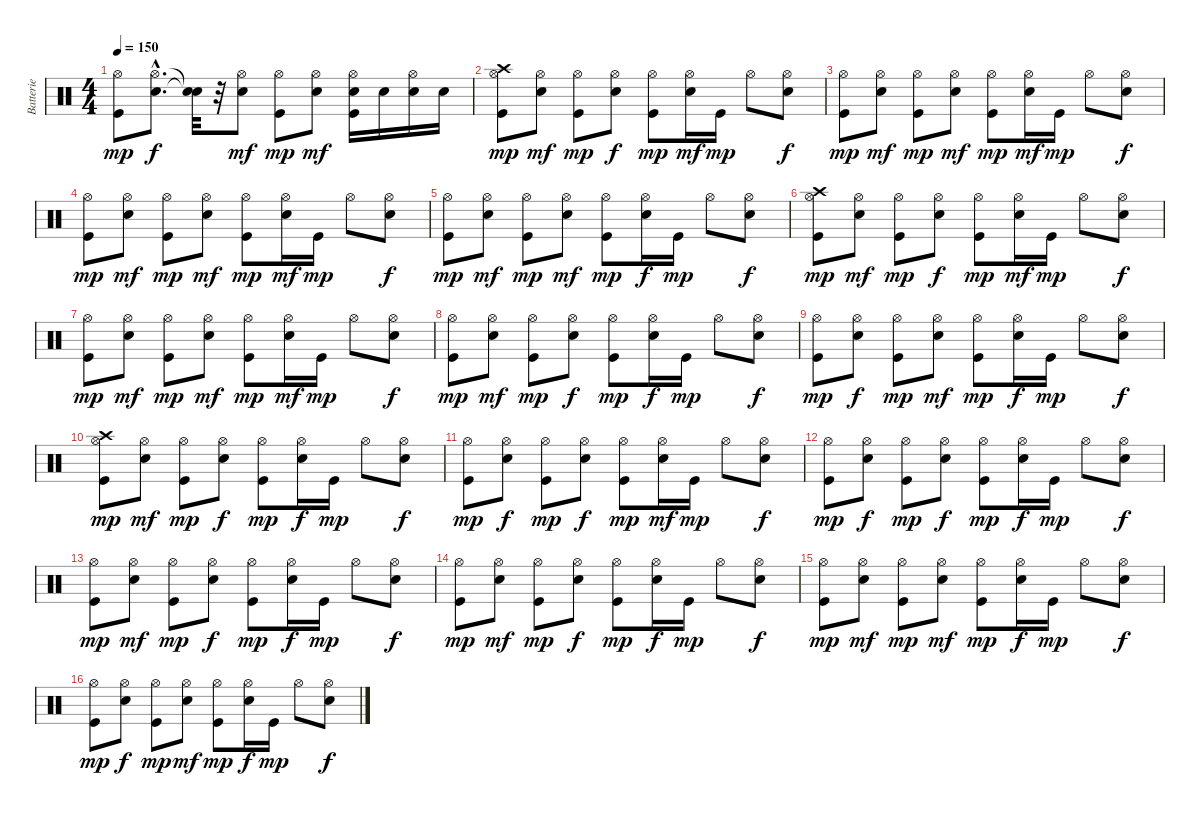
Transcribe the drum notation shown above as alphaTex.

\track ("Batterie" "Batterie") {instrument percussion}
\staff {score}
\articulation defaults
\ts (4 4)
\tempo 150
\clef neutral
\ks c
("Hi-Hat (open)" "Kick (hit)").8{dy mp} ("Hi-Hat (open)"{hac} "Snare (hit) 2"{hac}).8{d dy f} ("Snare (hit)"{t} "Snare (hit)"{t}).32 r.32 ("Hi-Hat (open)" "Snare (hit) 2").8{dy mf} ("Hi-Hat (open)" "Kick (hit)").8{dy mp} ("Hi-Hat (open)" "Snare (hit) 2").8{dy mf} ("Hi-Hat (open)" "Kick (hit)" "Snare (hit) 2").16 "Snare (hit) 2".16 ("Hi-Hat (open)" "Snare (hit) 2").16 "Snare (hit) 2".16 |
("Hi-Hat (open)" "Crash high (hit)" "Kick (hit)").8{dy mp} ("Hi-Hat (open)" "Snare (hit) 2").8{dy mf} ("Hi-Hat (open)" "Kick (hit)").8{dy mp} ("Hi-Hat (open)" "Snare (hit) 2").8{dy f} ("Hi-Hat (open)" "Kick (hit)").8{dy mp} ("Hi-Hat (open)" "Snare (hit) 2").16{dy mf} "Kick (hit)".16{dy mp} "Hi-Hat (open)".8 ("Hi-Hat (open)" "Snare (hit) 2").8{dy f} |
("Hi-Hat (open)" "Kick (hit)").8{dy mp} ("Hi-Hat (open)" "Snare (hit) 2").8{dy mf} ("Hi-Hat (open)" "Kick (hit)").8{dy mp} ("Hi-Hat (open)" "Snare (hit) 2").8{dy mf} ("Hi-Hat (open)" "Kick (hit)").8{dy mp} ("Hi-Hat (open)" "Snare (hit) 2").16{dy mf} "Kick (hit)".16{dy mp} "Hi-Hat (open)".8 ("Hi-Hat (open)" "Snare (hit) 2").8{dy f} |
("Hi-Hat (open)" "Kick (hit)").8{dy mp} ("Hi-Hat (open)" "Snare (hit) 2").8{dy mf} ("Hi-Hat (open)" "Kick (hit)").8{dy mp} ("Hi-Hat (open)" "Snare (hit) 2").8{dy mf} ("Hi-Hat (open)" "Kick (hit)").8{dy mp} ("Hi-Hat (open)" "Snare (hit) 2").16{dy mf} "Kick (hit)".16{dy mp} "Hi-Hat (open)".8 ("Hi-Hat (open)" "Snare (hit) 2").8{dy f} |
("Hi-Hat (open)" "Kick (hit)").8{dy mp} ("Hi-Hat (open)" "Snare (hit) 2").8{dy mf} ("Hi-Hat (open)" "Kick (hit)").8{dy mp} ("Hi-Hat (open)" "Snare (hit) 2").8{dy mf} ("Hi-Hat (open)" "Kick (hit)").8{dy mp} ("Hi-Hat (open)" "Snare (hit) 2").16{dy f} "Kick (hit)".16{dy mp} "Hi-Hat (open)".8 ("Hi-Hat (open)" "Snare (hit) 2").8{dy f} |
("Hi-Hat (open)" "Crash high (hit)" "Kick (hit)").8{dy mp} ("Hi-Hat (open)" "Snare (hit) 2").8{dy mf} ("Hi-Hat (open)" "Kick (hit)").8{dy mp} ("Hi-Hat (open)" "Snare (hit) 2").8{dy f} ("Hi-Hat (open)" "Kick (hit)").8{dy mp} ("Hi-Hat (open)" "Snare (hit) 2").16{dy mf} "Kick (hit)".16{dy mp} "Hi-Hat (open)".8 ("Hi-Hat (open)" "Snare (hit) 2").8{dy f} |
("Hi-Hat (open)" "Kick (hit)").8{dy mp} ("Hi-Hat (open)" "Snare (hit) 2").8{dy mf} ("Hi-Hat (open)" "Kick (hit)").8{dy mp} ("Hi-Hat (open)" "Snare (hit) 2").8{dy mf} ("Hi-Hat (open)" "Kick (hit)").8{dy mp} ("Hi-Hat (open)" "Snare (hit) 2").16{dy mf} "Kick (hit)".16{dy mp} "Hi-Hat (open)".8 ("Hi-Hat (open)" "Snare (hit) 2").8{dy f} |
("Hi-Hat (open)" "Kick (hit)").8{dy mp} ("Hi-Hat (open)" "Snare (hit) 2").8{dy mf} ("Hi-Hat (open)" "Kick (hit)").8{dy mp} ("Hi-Hat (open)" "Snare (hit) 2").8{dy f} ("Hi-Hat (open)" "Kick (hit)").8{dy mp} ("Hi-Hat (open)" "Snare (hit) 2").16{dy f} "Kick (hit)".16{dy mp} "Hi-Hat (open)".8 ("Hi-Hat (open)" "Snare (hit) 2").8{dy f} |
("Hi-Hat (open)" "Kick (hit)").8{dy mp} ("Hi-Hat (open)" "Snare (hit) 2").8{dy f} ("Hi-Hat (open)" "Kick (hit)").8{dy mp} ("Hi-Hat (open)" "Snare (hit) 2").8{dy mf} ("Hi-Hat (open)" "Kick (hit)").8{dy mp} ("Hi-Hat (open)" "Snare (hit) 2").16{dy f} "Kick (hit)".16{dy mp} "Hi-Hat (open)".8 ("Hi-Hat (open)" "Snare (hit) 2").8{dy f} |
("Hi-Hat (open)" "Crash high (hit)" "Kick (hit)").8{dy mp} ("Hi-Hat (open)" "Snare (hit) 2").8{dy mf} ("Hi-Hat (open)" "Kick (hit)").8{dy mp} ("Hi-Hat (open)" "Snare (hit) 2").8{dy f} ("Hi-Hat (open)" "Kick (hit)").8{dy mp} ("Hi-Hat (open)" "Snare (hit) 2").16{dy f} "Kick (hit)".16{dy mp} "Hi-Hat (open)".8 ("Hi-Hat (open)" "Snare (hit) 2").8{dy f} |
("Hi-Hat (open)" "Kick (hit)").8{dy mp} ("Hi-Hat (open)" "Snare (hit) 2").8{dy f} ("Hi-Hat (open)" "Kick (hit)").8{dy mp} ("Hi-Hat (open)" "Snare (hit) 2").8{dy f} ("Hi-Hat (open)" "Kick (hit)").8{dy mp} ("Hi-Hat (open)" "Snare (hit) 2").16{dy mf} "Kick (hit)".16{dy mp} "Hi-Hat (open)".8 ("Hi-Hat (open)" "Snare (hit) 2").8{dy f} |
("Hi-Hat (open)" "Kick (hit)").8{dy mp} ("Hi-Hat (open)" "Snare (hit) 2").8{dy f} ("Hi-Hat (open)" "Kick (hit)").8{dy mp} ("Hi-Hat (open)" "Snare (hit) 2").8{dy f} ("Hi-Hat (open)" "Kick (hit)").8{dy mp} ("Hi-Hat (open)" "Snare (hit) 2").16{dy f} "Kick (hit)".16{dy mp} "Hi-Hat (open)".8 ("Hi-Hat (open)" "Snare (hit) 2").8{dy f} |
("Hi-Hat (open)" "Kick (hit)").8{dy mp} ("Hi-Hat (open)" "Snare (hit) 2").8{dy mf} ("Hi-Hat (open)" "Kick (hit)").8{dy mp} ("Hi-Hat (open)" "Snare (hit) 2").8{dy f} ("Hi-Hat (open)" "Kick (hit)").8{dy mp} ("Hi-Hat (open)" "Snare (hit) 2").16{dy f} "Kick (hit)".16{dy mp} "Hi-Hat (open)".8 ("Hi-Hat (open)" "Snare (hit) 2").8{dy f} |
("Hi-Hat (open)" "Kick (hit)").8{dy mp} ("Hi-Hat (open)" "Snare (hit) 2").8{dy mf} ("Hi-Hat (open)" "Kick (hit)").8{dy mp} ("Hi-Hat (open)" "Snare (hit) 2").8{dy f} ("Hi-Hat (open)" "Kick (hit)").8{dy mp} ("Hi-Hat (open)" "Snare (hit) 2").16{dy f} "Kick (hit)".16{dy mp} "Hi-Hat (open)".8 ("Hi-Hat (open)" "Snare (hit) 2").8{dy f} |
("Hi-Hat (open)" "Kick (hit)").8{dy mp} ("Hi-Hat (open)" "Snare (hit) 2").8{dy mf} ("Hi-Hat (open)" "Kick (hit)").8{dy mp} ("Hi-Hat (open)" "Snare (hit) 2").8{dy mf} ("Hi-Hat (open)" "Kick (hit)").8{dy mp} ("Hi-Hat (open)" "Snare (hit) 2").16{dy f} "Kick (hit)".16{dy mp} "Hi-Hat (open)".8 ("Hi-Hat (open)" "Snare (hit) 2").8{dy f} |
("Hi-Hat (open)" "Kick (hit)").8{dy mp} ("Hi-Hat (open)" "Snare (hit) 2").8{dy f} ("Hi-Hat (open)" "Kick (hit)").8{dy mp} ("Hi-Hat (open)" "Snare (hit) 2").8{dy mf} ("Hi-Hat (open)" "Kick (hit)").8{dy mp} ("Hi-Hat (open)" "Snare (hit) 2").16{dy f} "Kick (hit)".16{dy mp} "Hi-Hat (open)".8 ("Hi-Hat (open)" "Snare (hit) 2").8{dy f}
